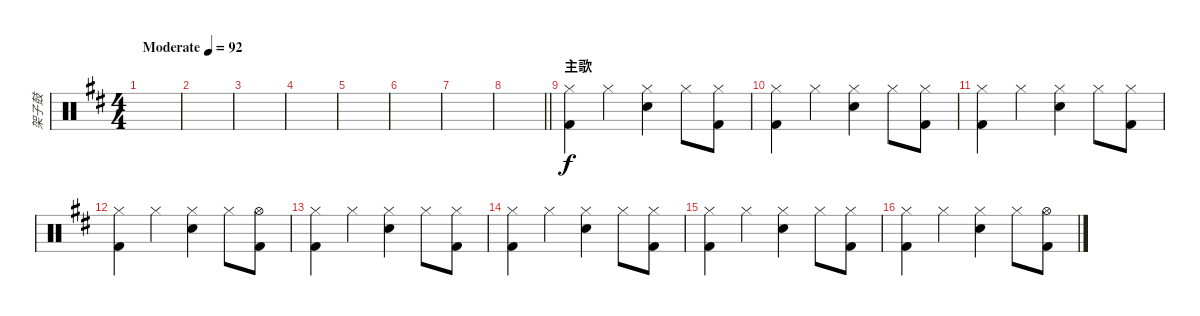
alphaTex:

\track ("架子鼓" "架子鼓") {instrument percussion}
\staff {score}
\articulation defaults
\ts (4 4)
\tempo (92 "Moderate")
\clef neutral
\ks d
|
|
|
|
|
|
|
\barLineRight lightlight
|
\section ("" "主歌")
("Hi-Hat (closed)" "Kick (hit) 2").4 "Hi-Hat (closed)".4 ("Hi-Hat (closed)" "Electric Snare (hit)").4 "Hi-Hat (closed)".8 ("Hi-Hat (closed)" "Kick (hit) 2").8 |
("Hi-Hat (closed)" "Kick (hit) 2").4 "Hi-Hat (closed)".4 ("Hi-Hat (closed)" "Electric Snare (hit)").4 "Hi-Hat (closed)".8 ("Hi-Hat (closed)" "Kick (hit) 2").8 |
("Hi-Hat (closed)" "Kick (hit) 2").4 "Hi-Hat (closed)".4 ("Hi-Hat (closed)" "Electric Snare (hit)").4 "Hi-Hat (closed)".8 ("Hi-Hat (closed)" "Kick (hit) 2").8 |
("Hi-Hat (closed)" "Kick (hit) 2").4 "Hi-Hat (closed)".4 ("Hi-Hat (closed)" "Electric Snare (hit)").4 "Hi-Hat (closed)".8 ("Hi-Hat (open)" "Kick (hit) 2").8 |
("Hi-Hat (closed)" "Kick (hit) 2").4 "Hi-Hat (closed)".4 ("Hi-Hat (closed)" "Electric Snare (hit)").4 "Hi-Hat (closed)".8 ("Hi-Hat (closed)" "Kick (hit) 2").8 |
("Hi-Hat (closed)" "Kick (hit) 2").4 "Hi-Hat (closed)".4 ("Hi-Hat (closed)" "Electric Snare (hit)").4 "Hi-Hat (closed)".8 ("Hi-Hat (closed)" "Kick (hit) 2").8 |
("Hi-Hat (closed)" "Kick (hit) 2").4 "Hi-Hat (closed)".4 ("Hi-Hat (closed)" "Electric Snare (hit)").4 "Hi-Hat (closed)".8 ("Hi-Hat (closed)" "Kick (hit) 2").8 |
("Hi-Hat (closed)" "Kick (hit) 2").4 "Hi-Hat (closed)".4 ("Hi-Hat (closed)" "Electric Snare (hit)").4 "Hi-Hat (closed)".8 ("Hi-Hat (open)" "Kick (hit) 2").8
